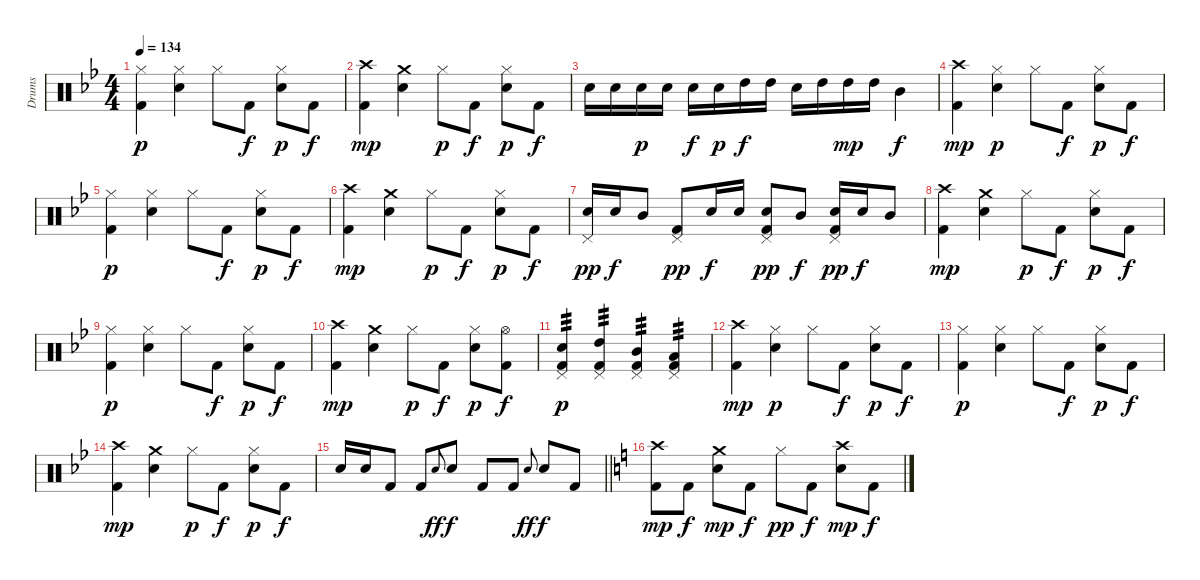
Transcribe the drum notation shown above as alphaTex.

\track ("Drums" "Drums") {instrument percussion}
\staff {score}
\articulation defaults
\ts (4 4)
\tempo 134
\clef neutral
\ks gminor
("Kick (hit) 2" "Hi-Hat (closed)").4{dy p} ("Electric Snare (hit)" "Hi-Hat (closed)").4 "Hi-Hat (closed)".8 "Kick (hit) 2".8{dy f} ("Electric Snare (hit)" "Hi-Hat (closed)").8{dy p} "Kick (hit) 2".8{dy f} |
("Kick (hit) 2" "Crash high (hit)").4{dy mp} ("Electric Snare (hit)" "Crash medium (hit)").4 "Hi-Hat (closed)".8{dy p} "Kick (hit) 2".8{dy f} ("Electric Snare (hit)" "Hi-Hat (closed)").8{dy p} "Kick (hit) 2".8{dy f} |
"Electric Snare (hit)".16 "Electric Snare (hit)".16 "Electric Snare (hit)".16{dy p} "Electric Snare (hit)".16 "Electric Snare (hit)".16{dy f} "Electric Snare (hit)".16{dy p} "High Tom (hit)".16{dy f} "High Tom (hit)".16 "Electric Snare (hit)".16 "High Tom (hit)".16 "High Tom (hit)".16{dy mp} "High Tom (hit)".16 "Mid Tom (hit)".4{dy f} |
("Kick (hit) 2" "Crash high (hit)").4{dy mp} ("Electric Snare (hit)" "Hi-Hat (closed)").4{dy p} "Hi-Hat (closed)".8 "Kick (hit) 2".8{dy f} ("Electric Snare (hit)" "Hi-Hat (closed)").8{dy p} "Kick (hit) 2".8{dy f} |
("Kick (hit) 2" "Hi-Hat (closed)").4{dy p} ("Electric Snare (hit)" "Hi-Hat (closed)").4 "Hi-Hat (closed)".8 "Kick (hit) 2".8{dy f} ("Electric Snare (hit)" "Hi-Hat (closed)").8{dy p} "Kick (hit) 2".8{dy f} |
("Kick (hit) 2" "Crash high (hit)").4{dy mp} ("Electric Snare (hit)" "Crash medium (hit)").4 "Hi-Hat (closed)".8{dy p} "Kick (hit) 2".8{dy f} ("Electric Snare (hit)" "Hi-Hat (closed)").8{dy p} "Kick (hit) 2".8{dy f} |
("Pedal Hi-Hat (hit)" "Electric Snare (hit)").16{dy pp} "Electric Snare (hit)".16{dy f} "Mid Tom (hit)".8 ("Pedal Hi-Hat (hit)" "Kick (hit) 2").8{dy pp} "Electric Snare (hit)".16{dy f} "Electric Snare (hit)".16 ("Kick (hit) 2" "Pedal Hi-Hat (hit)" "Electric Snare (hit)").8{dy pp} "Mid Tom (hit)".8{dy f} ("Pedal Hi-Hat (hit)" "Kick (hit) 2" "Electric Snare (hit)").16{dy pp} "Electric Snare (hit)".16{dy f} "Mid Tom (hit)".8 |
("Kick (hit) 2" "Crash high (hit)").4{dy mp} ("Electric Snare (hit)" "Crash medium (hit)").4 "Hi-Hat (closed)".8{dy p} "Kick (hit) 2".8{dy f} ("Electric Snare (hit)" "Hi-Hat (closed)").8{dy p} "Kick (hit) 2".8{dy f} |
("Kick (hit) 2" "Hi-Hat (closed)").4{dy p} ("Electric Snare (hit)" "Hi-Hat (closed)").4 "Hi-Hat (closed)".8 "Kick (hit) 2".8{dy f} ("Electric Snare (hit)" "Hi-Hat (closed)").8{dy p} "Kick (hit) 2".8{dy f} |
("Kick (hit) 2" "Crash high (hit)").4{dy mp} ("Electric Snare (hit)" "Crash medium (hit)").4 "Hi-Hat (closed)".8{dy p} "Kick (hit) 2".8{dy f} ("Electric Snare (hit)" "Hi-Hat (closed)").8{dy p} ("Kick (hit) 2" "Hi-Hat (open)").8{dy f} |
("Electric Snare (hit)" "Kick (hit) 2" "Pedal Hi-Hat (hit)").4{tp 3 dy p} ("High Tom (hit)" "Kick (hit) 2" "Pedal Hi-Hat (hit)").4{tp 3} ("Mid Tom (hit)" "Kick (hit) 2" "Pedal Hi-Hat (hit)").4{tp 3} ("Low Tom (hit)" "Kick (hit) 2" "Pedal Hi-Hat (hit)").4{tp 3} |
("Kick (hit) 2" "Crash high (hit)").4{dy mp} ("Electric Snare (hit)" "Hi-Hat (closed)").4{dy p} "Hi-Hat (closed)".8 "Kick (hit) 2".8{dy f} ("Electric Snare (hit)" "Hi-Hat (closed)").8{dy p} "Kick (hit) 2".8{dy f} |
("Kick (hit) 2" "Hi-Hat (closed)").4{dy p} ("Electric Snare (hit)" "Hi-Hat (closed)").4 "Hi-Hat (closed)".8 "Kick (hit) 2".8{dy f} ("Electric Snare (hit)" "Hi-Hat (closed)").8{dy p} "Kick (hit) 2".8{dy f} |
("Kick (hit) 2" "Crash high (hit)").4{dy mp} ("Electric Snare (hit)" "Crash medium (hit)").4 "Hi-Hat (closed)".8{dy p} "Kick (hit) 2".8{dy f} ("Electric Snare (hit)" "Hi-Hat (closed)").8{dy p} "Kick (hit) 2".8{dy f} |
\barLineRight lightlight "Electric Snare (hit)".16 "Electric Snare (hit)".16 "Kick (hit) 2".8 "Kick (hit) 2".8 "Electric Snare (hit)".8{gr onbeat dy ff} "Electric Snare (hit)".8{dy f} "Kick (hit) 2".8 "Kick (hit) 2".8 "Electric Snare (hit)".8{gr onbeat dy ff} "Electric Snare (hit)".8{dy f} "Kick (hit) 2".8
|
\ks aminor
("Kick (hit) 2" "Crash high (hit)").8{dy mp} "Kick (hit) 2".8{dy f} ("Electric Snare (hit)" "Crash medium (hit)").8{dy mp} "Kick (hit) 2".8{dy f} "Hi-Hat (closed)".8{dy pp} "Kick (hit) 2".8{dy f} ("Electric Snare (hit)" "Crash high (hit)").8{dy mp} "Kick (hit) 2".8{dy f}
